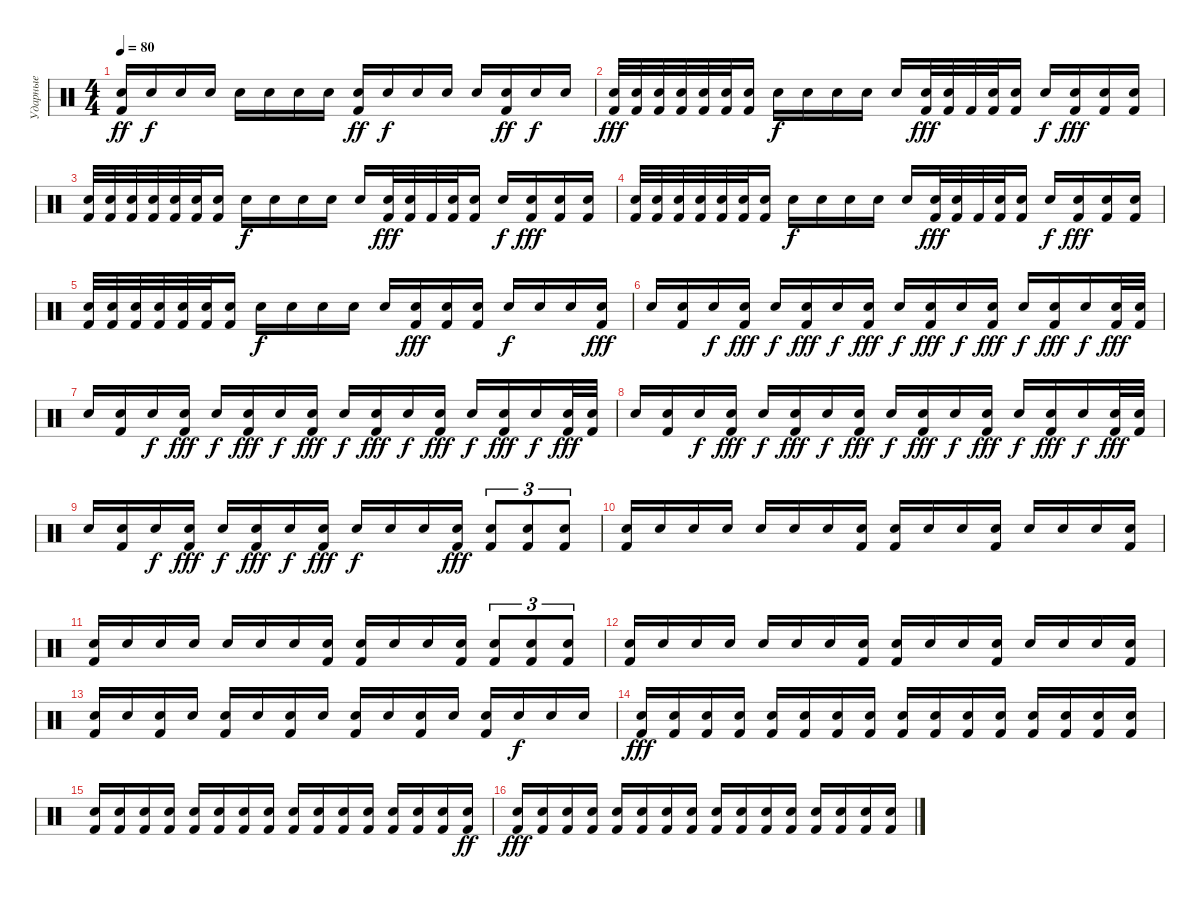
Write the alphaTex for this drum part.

\track ("Ударные" "Ударные") {instrument percussion}
\staff
\articulation defaults
\ts (4 4)
\tempo 80
\clef neutral
\ks c
("Kick (hit) 2" "Snare (hit)").16{dy ff} "Snare (hit)".16{dy f} "Snare (hit)".16 "Snare (hit)".16 "Snare (hit)".16 "Snare (hit)".16 "Snare (hit)".16 "Snare (hit)".16 ("Kick (hit) 2" "Snare (hit)").16{dy ff} "Snare (hit)".16{dy f} "Snare (hit)".16 "Snare (hit)".16 "Snare (hit)".16 ("Kick (hit) 2" "Snare (hit)").16{dy ff} "Snare (hit)".16{dy f} "Snare (hit)".16 |
("Kick (hit) 2" "Snare (hit)").32{dy fff} ("Kick (hit) 2" "Snare (hit)").32 ("Kick (hit) 2" "Snare (hit)").32 ("Kick (hit) 2" "Snare (hit)").32 ("Kick (hit) 2" "Snare (hit)").32 ("Kick (hit) 2" "Snare (hit)").32 ("Kick (hit) 2" "Snare (hit)").16 "Snare (hit)".16{dy f} "Snare (hit)".16 "Snare (hit)".16 "Snare (hit)".16 "Snare (hit)".16 ("Kick (hit) 2" "Snare (hit)").32{dy fff} ("Kick (hit) 2" "Snare (hit)").32 "Kick (hit) 2".32 ("Kick (hit) 2" "Snare (hit)").32 ("Kick (hit) 2" "Snare (hit)").16 "Snare (hit)".16{dy f} ("Kick (hit) 2" "Snare (hit)").16{dy fff} ("Kick (hit) 2" "Snare (hit)").16 ("Kick (hit) 2" "Snare (hit)").16 |
("Kick (hit) 2" "Snare (hit)").32 ("Kick (hit) 2" "Snare (hit)").32 ("Kick (hit) 2" "Snare (hit)").32 ("Kick (hit) 2" "Snare (hit)").32 ("Kick (hit) 2" "Snare (hit)").32 ("Kick (hit) 2" "Snare (hit)").32 ("Kick (hit) 2" "Snare (hit)").16 "Snare (hit)".16{dy f} "Snare (hit)".16 "Snare (hit)".16 "Snare (hit)".16 "Snare (hit)".16 ("Kick (hit) 2" "Snare (hit)").32{dy fff} ("Kick (hit) 2" "Snare (hit)").32 "Kick (hit) 2".32 ("Kick (hit) 2" "Snare (hit)").32 ("Kick (hit) 2" "Snare (hit)").16 "Snare (hit)".16{dy f} ("Kick (hit) 2" "Snare (hit)").16{dy fff} ("Kick (hit) 2" "Snare (hit)").16 ("Kick (hit) 2" "Snare (hit)").16 |
("Kick (hit) 2" "Snare (hit)").32 ("Kick (hit) 2" "Snare (hit)").32 ("Kick (hit) 2" "Snare (hit)").32 ("Kick (hit) 2" "Snare (hit)").32 ("Kick (hit) 2" "Snare (hit)").32 ("Kick (hit) 2" "Snare (hit)").32 ("Kick (hit) 2" "Snare (hit)").16 "Snare (hit)".16{dy f} "Snare (hit)".16 "Snare (hit)".16 "Snare (hit)".16 "Snare (hit)".16 ("Kick (hit) 2" "Snare (hit)").32{dy fff} ("Kick (hit) 2" "Snare (hit)").32 "Kick (hit) 2".32 ("Kick (hit) 2" "Snare (hit)").32 ("Kick (hit) 2" "Snare (hit)").16 "Snare (hit)".16{dy f} ("Kick (hit) 2" "Snare (hit)").16{dy fff} ("Kick (hit) 2" "Snare (hit)").16 ("Kick (hit) 2" "Snare (hit)").16 |
("Kick (hit) 2" "Snare (hit)").32 ("Kick (hit) 2" "Snare (hit)").32 ("Kick (hit) 2" "Snare (hit)").32 ("Kick (hit) 2" "Snare (hit)").32 ("Kick (hit) 2" "Snare (hit)").32 ("Kick (hit) 2" "Snare (hit)").32 ("Kick (hit) 2" "Snare (hit)").16 "Snare (hit)".16{dy f} "Snare (hit)".16 "Snare (hit)".16 "Snare (hit)".16 "Snare (hit)".16 ("Kick (hit) 2" "Snare (hit)").16{dy fff} ("Kick (hit) 2" "Snare (hit)").16 ("Kick (hit) 2" "Snare (hit)").16 "Snare (hit)".16{dy f} "Snare (hit)".16 "Snare (hit)".16 ("Kick (hit) 2" "Snare (hit)").16{dy fff} |
"Snare (hit)".16 ("Kick (hit) 2" "Snare (hit)").16 "Snare (hit)".16{dy f} ("Kick (hit) 2" "Snare (hit)").16{dy fff} "Snare (hit)".16{dy f} ("Kick (hit) 2" "Snare (hit)").16{dy fff} "Snare (hit)".16{dy f} ("Kick (hit) 2" "Snare (hit)").16{dy fff} "Snare (hit)".16{dy f} ("Kick (hit) 2" "Snare (hit)").16{dy fff} "Snare (hit)".16{dy f} ("Kick (hit) 2" "Snare (hit)").16{dy fff} "Snare (hit)".16{dy f} ("Kick (hit) 2" "Snare (hit)").16{dy fff} "Snare (hit)".16{dy f} ("Kick (hit) 2" "Snare (hit)").32{dy fff} ("Kick (hit) 2" "Snare (hit)").32 |
"Snare (hit)".16 ("Kick (hit) 2" "Snare (hit)").16 "Snare (hit)".16{dy f} ("Kick (hit) 2" "Snare (hit)").16{dy fff} "Snare (hit)".16{dy f} ("Kick (hit) 2" "Snare (hit)").16{dy fff} "Snare (hit)".16{dy f} ("Kick (hit) 2" "Snare (hit)").16{dy fff} "Snare (hit)".16{dy f} ("Kick (hit) 2" "Snare (hit)").16{dy fff} "Snare (hit)".16{dy f} ("Kick (hit) 2" "Snare (hit)").16{dy fff} "Snare (hit)".16{dy f} ("Kick (hit) 2" "Snare (hit)").16{dy fff} "Snare (hit)".16{dy f} ("Kick (hit) 2" "Snare (hit)").32{dy fff} ("Kick (hit) 2" "Snare (hit)").32 |
"Snare (hit)".16 ("Kick (hit) 2" "Snare (hit)").16 "Snare (hit)".16{dy f} ("Kick (hit) 2" "Snare (hit)").16{dy fff} "Snare (hit)".16{dy f} ("Kick (hit) 2" "Snare (hit)").16{dy fff} "Snare (hit)".16{dy f} ("Kick (hit) 2" "Snare (hit)").16{dy fff} "Snare (hit)".16{dy f} ("Kick (hit) 2" "Snare (hit)").16{dy fff} "Snare (hit)".16{dy f} ("Kick (hit) 2" "Snare (hit)").16{dy fff} "Snare (hit)".16{dy f} ("Kick (hit) 2" "Snare (hit)").16{dy fff} "Snare (hit)".16{dy f} ("Kick (hit) 2" "Snare (hit)").32{dy fff} ("Kick (hit) 2" "Snare (hit)").32 |
"Snare (hit)".16 ("Kick (hit) 2" "Snare (hit)").16 "Snare (hit)".16{dy f} ("Kick (hit) 2" "Snare (hit)").16{dy fff} "Snare (hit)".16{dy f} ("Kick (hit) 2" "Snare (hit)").16{dy fff} "Snare (hit)".16{dy f} ("Kick (hit) 2" "Snare (hit)").16{dy fff} "Snare (hit)".16{dy f} "Snare (hit)".16 "Snare (hit)".16 ("Kick (hit) 2" "Snare (hit)").16{dy fff} ("Kick (hit) 2" "Snare (hit)").8{tu (3 2)} ("Kick (hit) 2" "Snare (hit)").8{tu (3 2)} ("Kick (hit) 2" "Snare (hit)").8{tu (3 2)} |
("Kick (hit) 2" "Snare (hit)").16 "Snare (hit)".16 "Snare (hit)".16 "Snare (hit)".16 "Snare (hit)".16 "Snare (hit)".16 "Snare (hit)".16 ("Kick (hit) 2" "Snare (hit)").16 ("Kick (hit) 2" "Snare (hit)").16 "Snare (hit)".16 "Snare (hit)".16 ("Kick (hit) 2" "Snare (hit)").16 "Snare (hit)".16 "Snare (hit)".16 "Snare (hit)".16 ("Kick (hit) 2" "Snare (hit)").16 |
("Kick (hit) 2" "Snare (hit)").16 "Snare (hit)".16 "Snare (hit)".16 "Snare (hit)".16 "Snare (hit)".16 "Snare (hit)".16 "Snare (hit)".16 ("Kick (hit) 2" "Snare (hit)").16 ("Kick (hit) 2" "Snare (hit)").16 "Snare (hit)".16 "Snare (hit)".16 ("Kick (hit) 2" "Snare (hit)").16 ("Kick (hit) 2" "Snare (hit)").8{tu (3 2)} ("Kick (hit) 2" "Snare (hit)").8{tu (3 2)} ("Kick (hit) 2" "Snare (hit)").8{tu (3 2)} |
("Kick (hit) 2" "Snare (hit)").16 "Snare (hit)".16 "Snare (hit)".16 "Snare (hit)".16 "Snare (hit)".16 "Snare (hit)".16 "Snare (hit)".16 ("Kick (hit) 2" "Snare (hit)").16 ("Kick (hit) 2" "Snare (hit)").16 "Snare (hit)".16 "Snare (hit)".16 ("Kick (hit) 2" "Snare (hit)").16 "Snare (hit)".16 "Snare (hit)".16 "Snare (hit)".16 ("Kick (hit) 2" "Snare (hit)").16 |
("Kick (hit) 2" "Snare (hit)").16 "Snare (hit)".16 ("Kick (hit) 2" "Snare (hit)").16 "Snare (hit)".16 ("Kick (hit) 2" "Snare (hit)").16 "Snare (hit)".16 ("Kick (hit) 2" "Snare (hit)").16 "Snare (hit)".16 ("Kick (hit) 2" "Snare (hit)").16 "Snare (hit)".16 ("Kick (hit) 2" "Snare (hit)").16 "Snare (hit)".16 ("Kick (hit) 2" "Snare (hit)").16 "Snare (hit)".16{dy f} "Snare (hit)".16 "Snare (hit)".16 |
("Kick (hit) 2" "Snare (hit)").16{dy fff} ("Kick (hit) 2" "Snare (hit)").16 ("Kick (hit) 2" "Snare (hit)").16 ("Kick (hit) 2" "Snare (hit)").16 ("Kick (hit) 2" "Snare (hit)").16 ("Kick (hit) 2" "Snare (hit)").16 ("Kick (hit) 2" "Snare (hit)").16 ("Kick (hit) 2" "Snare (hit)").16 ("Kick (hit) 2" "Snare (hit)").16 ("Kick (hit) 2" "Snare (hit)").16 ("Kick (hit) 2" "Snare (hit)").16 ("Kick (hit) 2" "Snare (hit)").16 ("Kick (hit) 2" "Snare (hit)").16 ("Kick (hit) 2" "Snare (hit)").16 ("Kick (hit) 2" "Snare (hit)").16 ("Kick (hit) 2" "Snare (hit)").16 |
("Kick (hit) 2" "Snare (hit)").16 ("Kick (hit) 2" "Snare (hit)").16 ("Kick (hit) 2" "Snare (hit)").16 ("Kick (hit) 2" "Snare (hit)").16 ("Kick (hit) 2" "Snare (hit)").16 ("Kick (hit) 2" "Snare (hit)").16 ("Kick (hit) 2" "Snare (hit)").16 ("Kick (hit) 2" "Snare (hit)").16 ("Kick (hit) 2" "Snare (hit)").16 ("Kick (hit) 2" "Snare (hit)").16 ("Kick (hit) 2" "Snare (hit)").16 ("Kick (hit) 2" "Snare (hit)").16 ("Kick (hit) 2" "Snare (hit)").16 ("Kick (hit) 2" "Snare (hit)").16 ("Kick (hit) 2" "Snare (hit)").16 ("Kick (hit) 2" "Snare (hit)").16{dy ff} |
("Kick (hit) 2" "Snare (hit)").16{dy fff} ("Kick (hit) 2" "Snare (hit)").16 ("Kick (hit) 2" "Snare (hit)").16 ("Kick (hit) 2" "Snare (hit)").16 ("Kick (hit) 2" "Snare (hit)").16 ("Kick (hit) 2" "Snare (hit)").16 ("Kick (hit) 2" "Snare (hit)").16 ("Kick (hit) 2" "Snare (hit)").16 ("Kick (hit) 2" "Snare (hit)").16 ("Kick (hit) 2" "Snare (hit)").16 ("Kick (hit) 2" "Snare (hit)").16 ("Kick (hit) 2" "Snare (hit)").16 ("Kick (hit) 2" "Snare (hit)").16 ("Kick (hit) 2" "Snare (hit)").16 ("Kick (hit) 2" "Snare (hit)").16 ("Kick (hit) 2" "Snare (hit)").16
